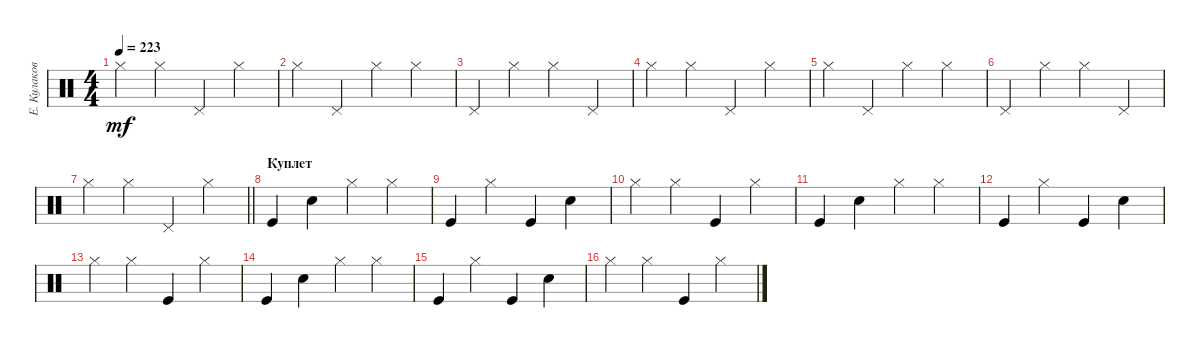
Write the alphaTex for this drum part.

\track ("Е. Кулаков" "Е. Кулаков") {instrument percussion}
\staff {score}
\articulation defaults
\ts (4 4)
\tempo 223
\clef neutral
\ks c "Hi-Hat (closed)".4{dy mf} "Hi-Hat (closed)".4 "Pedal Hi-Hat (hit)".4 "Hi-Hat (closed)".4
|
"Hi-Hat (closed)".4 "Pedal Hi-Hat (hit)".4 "Hi-Hat (closed)".4 "Hi-Hat (closed)".4 |
"Pedal Hi-Hat (hit)".4 "Hi-Hat (closed)".4 "Hi-Hat (closed)".4 "Pedal Hi-Hat (hit)".4 |
"Hi-Hat (closed)".4 "Hi-Hat (closed)".4 "Pedal Hi-Hat (hit)".4 "Hi-Hat (closed)".4 |
"Hi-Hat (closed)".4 "Pedal Hi-Hat (hit)".4 "Hi-Hat (closed)".4 "Hi-Hat (closed)".4 |
"Pedal Hi-Hat (hit)".4 "Hi-Hat (closed)".4 "Hi-Hat (closed)".4 "Pedal Hi-Hat (hit)".4 |
\barLineRight lightlight "Hi-Hat (closed)".4 "Hi-Hat (closed)".4 "Pedal Hi-Hat (hit)".4 "Hi-Hat (closed)".4
|
\section ("" "Куплет")
"Kick (hit)".4 "Snare (hit) 2".4 "Hi-Hat (closed)".4 "Hi-Hat (closed)".4 |
"Kick (hit)".4 "Hi-Hat (closed)".4 "Kick (hit)".4 "Snare (hit) 2".4 |
"Hi-Hat (closed)".4 "Hi-Hat (closed)".4 "Kick (hit)".4 "Hi-Hat (closed)".4 |
"Kick (hit)".4 "Snare (hit) 2".4 "Hi-Hat (closed)".4 "Hi-Hat (closed)".4 |
"Kick (hit)".4 "Hi-Hat (closed)".4 "Kick (hit)".4 "Snare (hit) 2".4 |
"Hi-Hat (closed)".4 "Hi-Hat (closed)".4 "Kick (hit)".4 "Hi-Hat (closed)".4 |
"Kick (hit)".4 "Snare (hit) 2".4 "Hi-Hat (closed)".4 "Hi-Hat (closed)".4 |
"Kick (hit)".4 "Hi-Hat (closed)".4 "Kick (hit)".4 "Snare (hit) 2".4 |
"Hi-Hat (closed)".4 "Hi-Hat (closed)".4 "Kick (hit)".4 "Hi-Hat (closed)".4
